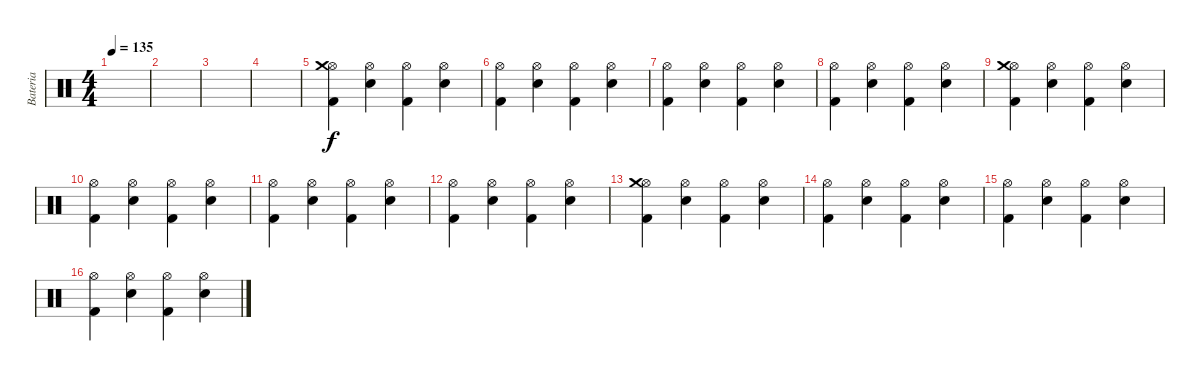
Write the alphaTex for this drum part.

\track ("Bateria" "Bateria") {instrument percussion}
\staff {score}
\articulation defaults
\ts (4 4)
\tempo 135
\clef neutral
\ks c
|
|
|
|
("Kick (hit) 2" "Hi-Hat (open)" "Crash medium (hit)").4 ("Electric Snare (hit)" "Hi-Hat (open)").4 ("Kick (hit) 2" "Hi-Hat (open)").4 ("Electric Snare (hit)" "Hi-Hat (open)").4 |
("Kick (hit) 2" "Hi-Hat (open)").4 ("Electric Snare (hit)" "Hi-Hat (open)").4 ("Kick (hit) 2" "Hi-Hat (open)").4 ("Electric Snare (hit)" "Hi-Hat (open)").4 |
("Kick (hit) 2" "Hi-Hat (open)").4 ("Electric Snare (hit)" "Hi-Hat (open)").4 ("Kick (hit) 2" "Hi-Hat (open)").4 ("Electric Snare (hit)" "Hi-Hat (open)").4 |
("Kick (hit) 2" "Hi-Hat (open)").4 ("Electric Snare (hit)" "Hi-Hat (open)").4 ("Kick (hit) 2" "Hi-Hat (open)").4 ("Electric Snare (hit)" "Hi-Hat (open)").4 |
("Kick (hit) 2" "Hi-Hat (open)" "Crash medium (hit)").4 ("Electric Snare (hit)" "Hi-Hat (open)").4 ("Kick (hit) 2" "Hi-Hat (open)").4 ("Electric Snare (hit)" "Hi-Hat (open)").4 |
("Kick (hit) 2" "Hi-Hat (open)").4 ("Electric Snare (hit)" "Hi-Hat (open)").4 ("Kick (hit) 2" "Hi-Hat (open)").4 ("Electric Snare (hit)" "Hi-Hat (open)").4 |
("Kick (hit) 2" "Hi-Hat (open)").4 ("Electric Snare (hit)" "Hi-Hat (open)").4 ("Kick (hit) 2" "Hi-Hat (open)").4 ("Electric Snare (hit)" "Hi-Hat (open)").4 |
("Kick (hit) 2" "Hi-Hat (open)").4 ("Electric Snare (hit)" "Hi-Hat (open)").4 ("Kick (hit) 2" "Hi-Hat (open)").4 ("Electric Snare (hit)" "Hi-Hat (open)").4 |
("Kick (hit) 2" "Hi-Hat (open)" "Crash medium (hit)").4 ("Electric Snare (hit)" "Hi-Hat (open)").4 ("Kick (hit) 2" "Hi-Hat (open)").4 ("Electric Snare (hit)" "Hi-Hat (open)").4 |
("Kick (hit) 2" "Hi-Hat (open)").4 ("Electric Snare (hit)" "Hi-Hat (open)").4 ("Kick (hit) 2" "Hi-Hat (open)").4 ("Electric Snare (hit)" "Hi-Hat (open)").4 |
("Kick (hit) 2" "Hi-Hat (open)").4 ("Electric Snare (hit)" "Hi-Hat (open)").4 ("Kick (hit) 2" "Hi-Hat (open)").4 ("Electric Snare (hit)" "Hi-Hat (open)").4 |
("Kick (hit) 2" "Hi-Hat (open)").4 ("Electric Snare (hit)" "Hi-Hat (open)").4 ("Kick (hit) 2" "Hi-Hat (open)").4 ("Electric Snare (hit)" "Hi-Hat (open)").4
